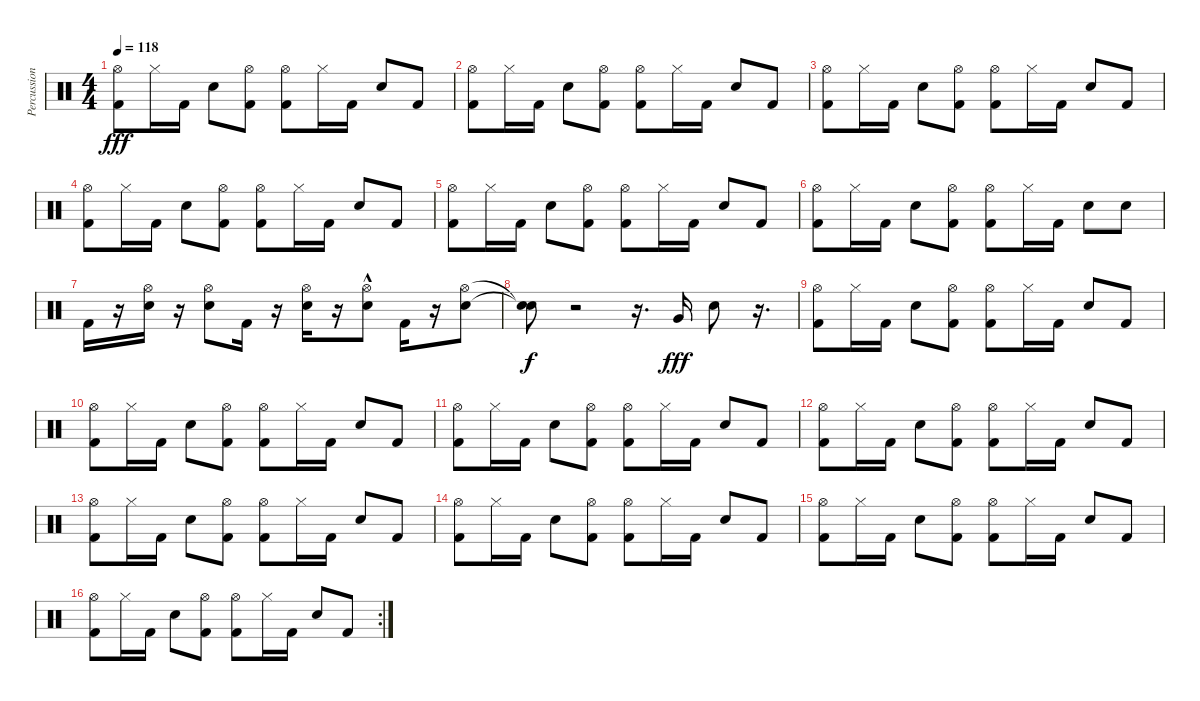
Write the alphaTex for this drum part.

\track ("Percussion" "Percussion") {instrument percussion}
\staff {score}
\articulation defaults
\ts (4 4)
\tempo 118
\clef neutral
\ks c
("Hi-Hat (open)" "Kick (hit) 2").8{dy fff} "Hi-Hat (closed)".16 "Kick (hit) 2".16 "Electric Snare (hit)".8 ("Hi-Hat (open)" "Kick (hit) 2").8 ("Hi-Hat (open)" "Kick (hit) 2").8 "Hi-Hat (closed)".16 "Kick (hit) 2".16 "Electric Snare (hit)".8 "Kick (hit) 2".8 |
("Hi-Hat (open)" "Kick (hit) 2").8 "Hi-Hat (closed)".16 "Kick (hit) 2".16 "Electric Snare (hit)".8 ("Hi-Hat (open)" "Kick (hit) 2").8 ("Hi-Hat (open)" "Kick (hit) 2").8 "Hi-Hat (closed)".16 "Kick (hit) 2".16 "Electric Snare (hit)".8 "Kick (hit) 2".8 |
("Hi-Hat (open)" "Kick (hit) 2").8 "Hi-Hat (closed)".16 "Kick (hit) 2".16 "Electric Snare (hit)".8 ("Hi-Hat (open)" "Kick (hit) 2").8 ("Hi-Hat (open)" "Kick (hit) 2").8 "Hi-Hat (closed)".16 "Kick (hit) 2".16 "Electric Snare (hit)".8 "Kick (hit) 2".8 |
("Hi-Hat (open)" "Kick (hit) 2").8 "Hi-Hat (closed)".16 "Kick (hit) 2".16 "Electric Snare (hit)".8 ("Hi-Hat (open)" "Kick (hit) 2").8 ("Hi-Hat (open)" "Kick (hit) 2").8 "Hi-Hat (closed)".16 "Kick (hit) 2".16 "Electric Snare (hit)".8 "Kick (hit) 2".8 |
("Hi-Hat (open)" "Kick (hit) 2").8 "Hi-Hat (closed)".16 "Kick (hit) 2".16 "Electric Snare (hit)".8 ("Hi-Hat (open)" "Kick (hit) 2").8 ("Hi-Hat (open)" "Kick (hit) 2").8 "Hi-Hat (closed)".16 "Kick (hit) 2".16 "Electric Snare (hit)".8 "Kick (hit) 2".8 |
("Hi-Hat (open)" "Kick (hit) 2").8 "Hi-Hat (closed)".16 "Kick (hit) 2".16 "Electric Snare (hit)".8 ("Hi-Hat (open)" "Kick (hit) 2").8 ("Hi-Hat (open)" "Kick (hit) 2").8 "Hi-Hat (closed)".16 "Kick (hit) 2".16 "Electric Snare (hit)".8 "Electric Snare (hit)".8 |
"Kick (hit) 2".16 r.16 ("Hi-Hat (open)" "Electric Snare (hit)").16 r.16 ("Hi-Hat (open)" "Electric Snare (hit)").8 "Kick (hit) 2".16 r.16 ("Hi-Hat (open)" "Electric Snare (hit)").16 r.16 ("Hi-Hat (open)" "Electric Snare (hit)"{hac}).8 "Kick (hit) 2".16 r.16 ("Hi-Hat (open)" "Electric Snare (hit)").8 |
("Snare (hit)"{t} "Snare (hit)"{t}).8{dy f} r.2 r.16{d} "Very Low Tom (hit)".16{dy fff} "Electric Snare (hit)".8 r.16{d} |
("Hi-Hat (open)" "Kick (hit) 2").8 "Hi-Hat (closed)".16 "Kick (hit) 2".16 "Electric Snare (hit)".8 ("Hi-Hat (open)" "Kick (hit) 2").8 ("Hi-Hat (open)" "Kick (hit) 2").8 "Hi-Hat (closed)".16 "Kick (hit) 2".16 "Electric Snare (hit)".8 "Kick (hit) 2".8 |
("Hi-Hat (open)" "Kick (hit) 2").8 "Hi-Hat (closed)".16 "Kick (hit) 2".16 "Electric Snare (hit)".8 ("Hi-Hat (open)" "Kick (hit) 2").8 ("Hi-Hat (open)" "Kick (hit) 2").8 "Hi-Hat (closed)".16 "Kick (hit) 2".16 "Electric Snare (hit)".8 "Kick (hit) 2".8 |
("Hi-Hat (open)" "Kick (hit) 2").8 "Hi-Hat (closed)".16 "Kick (hit) 2".16 "Electric Snare (hit)".8 ("Hi-Hat (open)" "Kick (hit) 2").8 ("Hi-Hat (open)" "Kick (hit) 2").8 "Hi-Hat (closed)".16 "Kick (hit) 2".16 "Electric Snare (hit)".8 "Kick (hit) 2".8 |
("Hi-Hat (open)" "Kick (hit) 2").8 "Hi-Hat (closed)".16 "Kick (hit) 2".16 "Electric Snare (hit)".8 ("Hi-Hat (open)" "Kick (hit) 2").8 ("Hi-Hat (open)" "Kick (hit) 2").8 "Hi-Hat (closed)".16 "Kick (hit) 2".16 "Electric Snare (hit)".8 "Kick (hit) 2".8 |
("Hi-Hat (open)" "Kick (hit) 2").8 "Hi-Hat (closed)".16 "Kick (hit) 2".16 "Electric Snare (hit)".8 ("Hi-Hat (open)" "Kick (hit) 2").8 ("Hi-Hat (open)" "Kick (hit) 2").8 "Hi-Hat (closed)".16 "Kick (hit) 2".16 "Electric Snare (hit)".8 "Kick (hit) 2".8 |
("Hi-Hat (open)" "Kick (hit) 2").8 "Hi-Hat (closed)".16 "Kick (hit) 2".16 "Electric Snare (hit)".8 ("Hi-Hat (open)" "Kick (hit) 2").8 ("Hi-Hat (open)" "Kick (hit) 2").8 "Hi-Hat (closed)".16 "Kick (hit) 2".16 "Electric Snare (hit)".8 "Kick (hit) 2".8 |
("Hi-Hat (open)" "Kick (hit) 2").8 "Hi-Hat (closed)".16 "Kick (hit) 2".16 "Electric Snare (hit)".8 ("Hi-Hat (open)" "Kick (hit) 2").8 ("Hi-Hat (open)" "Kick (hit) 2").8 "Hi-Hat (closed)".16 "Kick (hit) 2".16 "Electric Snare (hit)".8 "Kick (hit) 2".8 |
\rc 2
("Hi-Hat (open)" "Kick (hit) 2").8 "Hi-Hat (closed)".16 "Kick (hit) 2".16 "Electric Snare (hit)".8 ("Hi-Hat (open)" "Kick (hit) 2").8 ("Hi-Hat (open)" "Kick (hit) 2").8 "Hi-Hat (closed)".16 "Kick (hit) 2".16 "Electric Snare (hit)".8 "Kick (hit) 2".8
